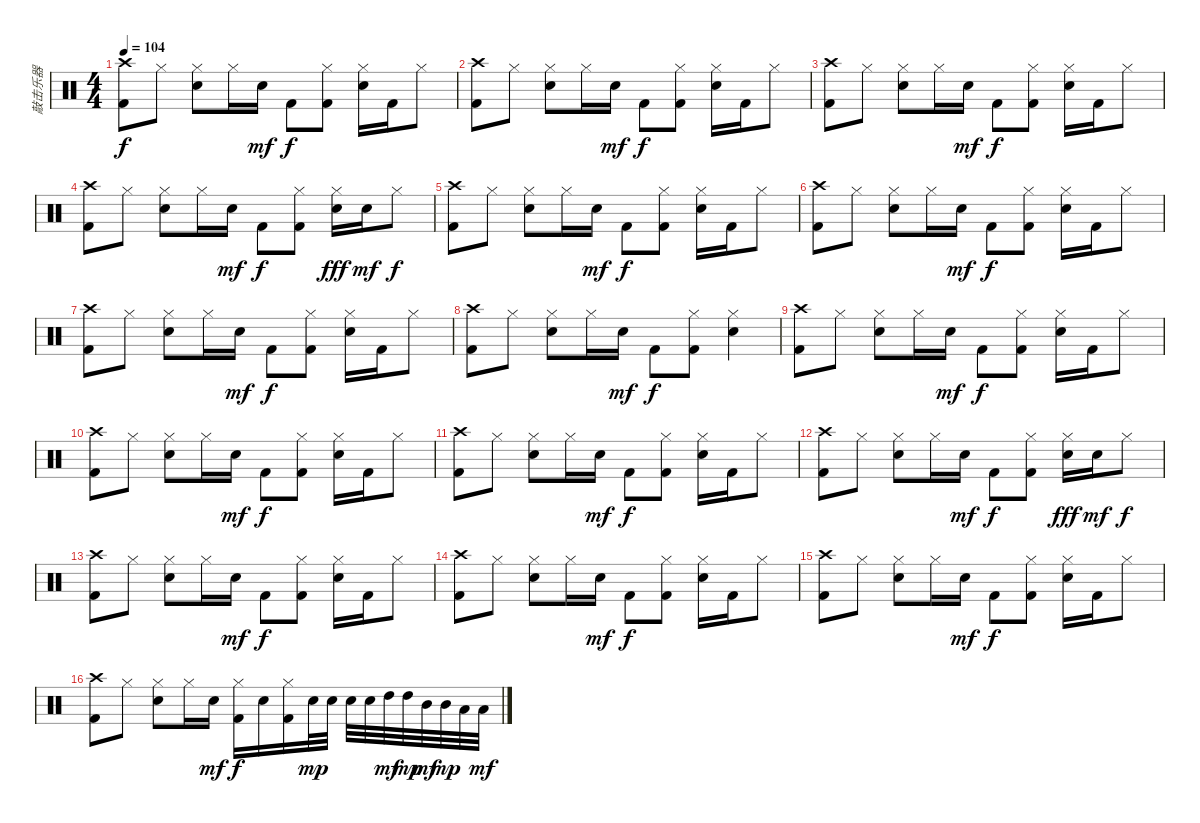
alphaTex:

\track ("敲击乐器" "敲击乐器") {instrument percussion}
\staff {score}
\articulation defaults
\ts (4 4)
\tempo 104
\clef neutral
\ks c
("Crash high (hit)" "Kick (hit) 2").8{dy f} "Hi-Hat (closed)".8 ("Hi-Hat (closed)" "Electric Snare (hit)").8 "Hi-Hat (closed)".16 "Electric Snare (hit)".16{dy mf} "Kick (hit) 2".8{dy f} ("Hi-Hat (closed)" "Kick (hit) 2").8 ("Hi-Hat (closed)" "Electric Snare (hit)").16 "Kick (hit) 2".16 "Hi-Hat (closed)".8 |
("Crash high (hit)" "Kick (hit) 2").8 "Hi-Hat (closed)".8 ("Hi-Hat (closed)" "Electric Snare (hit)").8 "Hi-Hat (closed)".16 "Electric Snare (hit)".16{dy mf} "Kick (hit) 2".8{dy f} ("Hi-Hat (closed)" "Kick (hit) 2").8 ("Hi-Hat (closed)" "Electric Snare (hit)").16 "Kick (hit) 2".16 "Hi-Hat (closed)".8 |
("Crash high (hit)" "Kick (hit) 2").8 "Hi-Hat (closed)".8 ("Hi-Hat (closed)" "Electric Snare (hit)").8 "Hi-Hat (closed)".16 "Electric Snare (hit)".16{dy mf} "Kick (hit) 2".8{dy f} ("Hi-Hat (closed)" "Kick (hit) 2").8 ("Hi-Hat (closed)" "Electric Snare (hit)").16 "Kick (hit) 2".16 "Hi-Hat (closed)".8 |
("Crash high (hit)" "Kick (hit) 2").8 "Hi-Hat (closed)".8 ("Hi-Hat (closed)" "Electric Snare (hit)").8 "Hi-Hat (closed)".16 "Electric Snare (hit)".16{dy mf} "Kick (hit) 2".8{dy f} ("Hi-Hat (closed)" "Kick (hit) 2").8 ("Hi-Hat (closed)" "Electric Snare (hit)").16{dy fff} "Electric Snare (hit)".16{dy mf} "Hi-Hat (closed)".8{dy f} |
("Crash high (hit)" "Kick (hit) 2").8 "Hi-Hat (closed)".8 ("Hi-Hat (closed)" "Electric Snare (hit)").8 "Hi-Hat (closed)".16 "Electric Snare (hit)".16{dy mf} "Kick (hit) 2".8{dy f} ("Hi-Hat (closed)" "Kick (hit) 2").8 ("Hi-Hat (closed)" "Electric Snare (hit)").16 "Kick (hit) 2".16 "Hi-Hat (closed)".8 |
("Crash high (hit)" "Kick (hit) 2").8 "Hi-Hat (closed)".8 ("Hi-Hat (closed)" "Electric Snare (hit)").8 "Hi-Hat (closed)".16 "Electric Snare (hit)".16{dy mf} "Kick (hit) 2".8{dy f} ("Hi-Hat (closed)" "Kick (hit) 2").8 ("Hi-Hat (closed)" "Electric Snare (hit)").16 "Kick (hit) 2".16 "Hi-Hat (closed)".8 |
("Crash high (hit)" "Kick (hit) 2").8 "Hi-Hat (closed)".8 ("Hi-Hat (closed)" "Electric Snare (hit)").8 "Hi-Hat (closed)".16 "Electric Snare (hit)".16{dy mf} "Kick (hit) 2".8{dy f} ("Hi-Hat (closed)" "Kick (hit) 2").8 ("Hi-Hat (closed)" "Electric Snare (hit)").16 "Kick (hit) 2".16 "Hi-Hat (closed)".8 |
("Crash high (hit)" "Kick (hit) 2").8 "Hi-Hat (closed)".8 ("Hi-Hat (closed)" "Electric Snare (hit)").8 "Hi-Hat (closed)".16 "Electric Snare (hit)".16{dy mf} "Kick (hit) 2".8{dy f} ("Hi-Hat (closed)" "Kick (hit) 2").8 ("Hi-Hat (closed)" "Electric Snare (hit)").4 |
("Crash high (hit)" "Kick (hit) 2").8 "Hi-Hat (closed)".8 ("Hi-Hat (closed)" "Electric Snare (hit)").8 "Hi-Hat (closed)".16 "Electric Snare (hit)".16{dy mf} "Kick (hit) 2".8{dy f} ("Hi-Hat (closed)" "Kick (hit) 2").8 ("Hi-Hat (closed)" "Electric Snare (hit)").16 "Kick (hit) 2".16 "Hi-Hat (closed)".8 |
("Crash high (hit)" "Kick (hit) 2").8 "Hi-Hat (closed)".8 ("Hi-Hat (closed)" "Electric Snare (hit)").8 "Hi-Hat (closed)".16 "Electric Snare (hit)".16{dy mf} "Kick (hit) 2".8{dy f} ("Hi-Hat (closed)" "Kick (hit) 2").8 ("Hi-Hat (closed)" "Electric Snare (hit)").16 "Kick (hit) 2".16 "Hi-Hat (closed)".8 |
("Crash high (hit)" "Kick (hit) 2").8 "Hi-Hat (closed)".8 ("Hi-Hat (closed)" "Electric Snare (hit)").8 "Hi-Hat (closed)".16 "Electric Snare (hit)".16{dy mf} "Kick (hit) 2".8{dy f} ("Hi-Hat (closed)" "Kick (hit) 2").8 ("Hi-Hat (closed)" "Electric Snare (hit)").16 "Kick (hit) 2".16 "Hi-Hat (closed)".8 |
("Crash high (hit)" "Kick (hit) 2").8 "Hi-Hat (closed)".8 ("Hi-Hat (closed)" "Electric Snare (hit)").8 "Hi-Hat (closed)".16 "Electric Snare (hit)".16{dy mf} "Kick (hit) 2".8{dy f} ("Hi-Hat (closed)" "Kick (hit) 2").8 ("Hi-Hat (closed)" "Electric Snare (hit)").16{dy fff} "Electric Snare (hit)".16{dy mf} "Hi-Hat (closed)".8{dy f} |
("Crash high (hit)" "Kick (hit) 2").8 "Hi-Hat (closed)".8 ("Hi-Hat (closed)" "Electric Snare (hit)").8 "Hi-Hat (closed)".16 "Electric Snare (hit)".16{dy mf} "Kick (hit) 2".8{dy f} ("Hi-Hat (closed)" "Kick (hit) 2").8 ("Hi-Hat (closed)" "Electric Snare (hit)").16 "Kick (hit) 2".16 "Hi-Hat (closed)".8 |
("Crash high (hit)" "Kick (hit) 2").8 "Hi-Hat (closed)".8 ("Hi-Hat (closed)" "Electric Snare (hit)").8 "Hi-Hat (closed)".16 "Electric Snare (hit)".16{dy mf} "Kick (hit) 2".8{dy f} ("Hi-Hat (closed)" "Kick (hit) 2").8 ("Hi-Hat (closed)" "Electric Snare (hit)").16 "Kick (hit) 2".16 "Hi-Hat (closed)".8 |
("Crash high (hit)" "Kick (hit) 2").8 "Hi-Hat (closed)".8 ("Hi-Hat (closed)" "Electric Snare (hit)").8 "Hi-Hat (closed)".16 "Electric Snare (hit)".16{dy mf} "Kick (hit) 2".8{dy f} ("Hi-Hat (closed)" "Kick (hit) 2").8 ("Hi-Hat (closed)" "Electric Snare (hit)").16 "Kick (hit) 2".16 "Hi-Hat (closed)".8 |
("Crash high (hit)" "Kick (hit) 2").8 "Hi-Hat (closed)".8 ("Hi-Hat (closed)" "Electric Snare (hit)").8 "Hi-Hat (closed)".16 "Electric Snare (hit)".16{dy mf} ("Hi-Hat (closed)" "Kick (hit) 2").16{dy f} "Electric Snare (hit)".16 ("Hi-Hat (closed)" "Kick (hit) 2").16 "Electric Snare (hit)".32{dy mp} "Electric Snare (hit)".32 "Electric Snare (hit)".32 "Electric Snare (hit)".32 "High Tom (hit)".32{dy mf} "High Tom (hit)".32{dy mp} "Mid Tom (hit)".32{dy mf} "Mid Tom (hit)".32{dy mp} "Low Tom (hit)".32 "Low Tom (hit)".32{dy mf}
